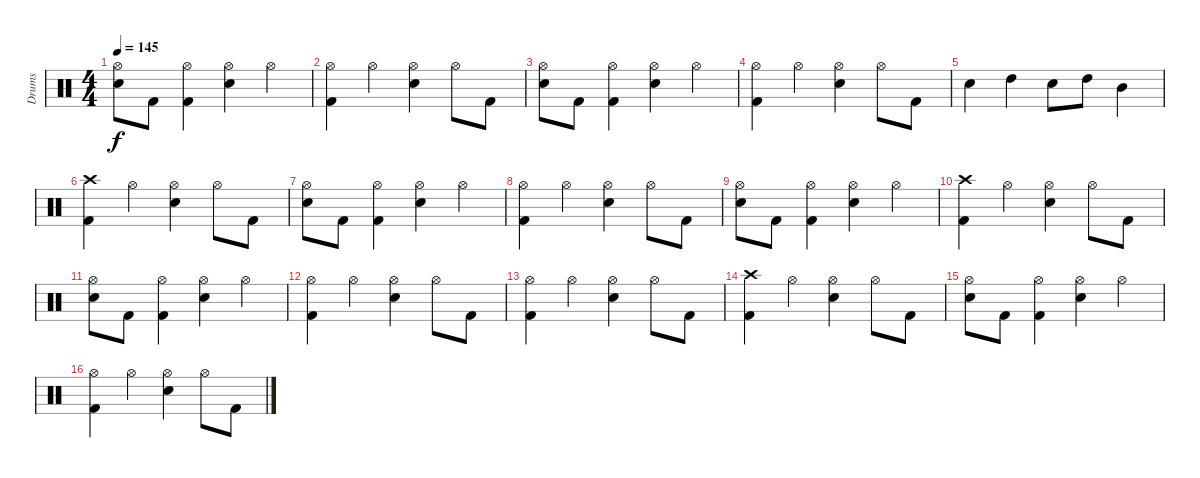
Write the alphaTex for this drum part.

\track ("Drums" "Drums") {instrument percussion}
\staff {score}
\articulation defaults
\ts (4 4)
\tempo 145
\clef neutral
\ks c
("Hi-Hat (open)" "Snare (hit) 2").8{dy f} "Kick (hit) 2".8 ("Hi-Hat (open)" "Kick (hit) 2").4 ("Hi-Hat (open)" "Snare (hit) 2").4 "Hi-Hat (open)".4 |
("Hi-Hat (open)" "Kick (hit) 2").4 "Hi-Hat (open)".4 ("Hi-Hat (open)" "Snare (hit) 2").4 "Hi-Hat (open)".8 "Kick (hit) 2".8 |
("Hi-Hat (open)" "Snare (hit) 2").8 "Kick (hit) 2".8 ("Hi-Hat (open)" "Kick (hit) 2").4 ("Hi-Hat (open)" "Snare (hit) 2").4 "Hi-Hat (open)".4 |
("Hi-Hat (open)" "Kick (hit) 2").4 "Hi-Hat (open)".4 ("Hi-Hat (open)" "Snare (hit) 2").4 "Hi-Hat (open)".8 "Kick (hit) 2".8 |
"Snare (hit) 2".4 "High Tom (hit)".4 "Snare (hit) 2".8 "High Tom (hit)".8 "Mid Tom (hit)".4 |
("Crash high (hit)" "Kick (hit) 2").4 "Hi-Hat (open)".4 ("Hi-Hat (open)" "Snare (hit) 2").4 "Hi-Hat (open)".8 "Kick (hit) 2".8 |
("Hi-Hat (open)" "Snare (hit) 2").8 "Kick (hit) 2".8 ("Hi-Hat (open)" "Kick (hit) 2").4 ("Hi-Hat (open)" "Snare (hit) 2").4 "Hi-Hat (open)".4 |
("Hi-Hat (open)" "Kick (hit) 2").4 "Hi-Hat (open)".4 ("Hi-Hat (open)" "Snare (hit) 2").4 "Hi-Hat (open)".8 "Kick (hit) 2".8 |
("Hi-Hat (open)" "Snare (hit) 2").8 "Kick (hit) 2".8 ("Hi-Hat (open)" "Kick (hit) 2").4 ("Hi-Hat (open)" "Snare (hit) 2").4 "Hi-Hat (open)".4 |
("Crash high (hit)" "Kick (hit) 2").4 "Hi-Hat (open)".4 ("Hi-Hat (open)" "Snare (hit) 2").4 "Hi-Hat (open)".8 "Kick (hit) 2".8 |
("Hi-Hat (open)" "Snare (hit) 2").8 "Kick (hit) 2".8 ("Hi-Hat (open)" "Kick (hit) 2").4 ("Hi-Hat (open)" "Snare (hit) 2").4 "Hi-Hat (open)".4 |
("Hi-Hat (open)" "Kick (hit) 2").4 "Hi-Hat (open)".4 ("Hi-Hat (open)" "Snare (hit) 2").4 "Hi-Hat (open)".8 "Kick (hit) 2".8 |
("Hi-Hat (open)" "Kick (hit) 2").4 "Hi-Hat (open)".4 ("Hi-Hat (open)" "Snare (hit) 2").4 "Hi-Hat (open)".8 "Kick (hit) 2".8 |
("Crash high (hit)" "Kick (hit) 2").4 "Hi-Hat (open)".4 ("Hi-Hat (open)" "Snare (hit) 2").4 "Hi-Hat (open)".8 "Kick (hit) 2".8 |
("Hi-Hat (open)" "Snare (hit) 2").8 "Kick (hit) 2".8 ("Hi-Hat (open)" "Kick (hit) 2").4 ("Hi-Hat (open)" "Snare (hit) 2").4 "Hi-Hat (open)".4 |
("Hi-Hat (open)" "Kick (hit) 2").4 "Hi-Hat (open)".4 ("Hi-Hat (open)" "Snare (hit) 2").4 "Hi-Hat (open)".8 "Kick (hit) 2".8
